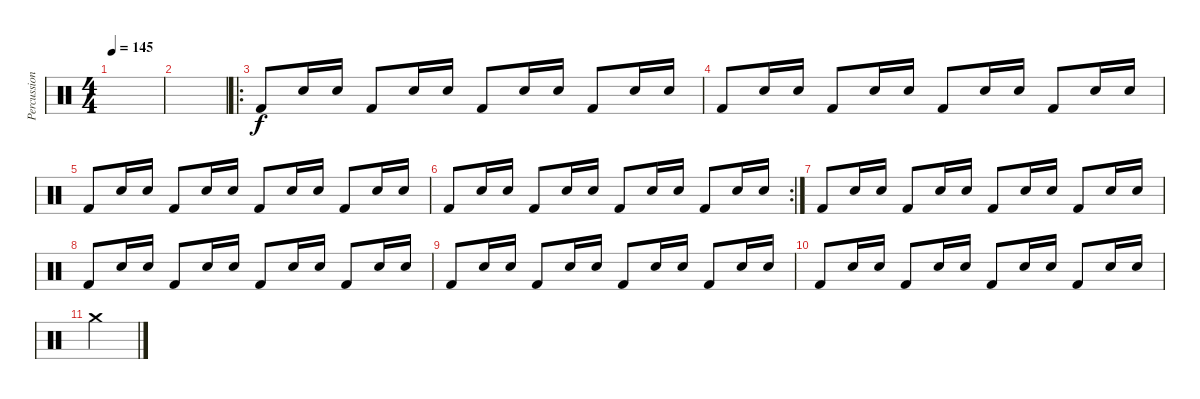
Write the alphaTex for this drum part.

\track ("Percussions" "Percussion") {instrument percussion}
\staff {score}
\articulation defaults
\ts (4 4)
\tempo 145
\clef neutral
\ks c
|
|
\ro "Kick (hit) 2".8 "Electric Snare (hit)".16 "Electric Snare (hit)".16 "Kick (hit) 2".8 "Electric Snare (hit)".16 "Electric Snare (hit)".16 "Kick (hit) 2".8 "Electric Snare (hit)".16 "Electric Snare (hit)".16 "Kick (hit) 2".8 "Electric Snare (hit)".16 "Electric Snare (hit)".16
|
"Kick (hit) 2".8 "Electric Snare (hit)".16 "Electric Snare (hit)".16 "Kick (hit) 2".8 "Electric Snare (hit)".16 "Electric Snare (hit)".16 "Kick (hit) 2".8 "Electric Snare (hit)".16 "Electric Snare (hit)".16 "Kick (hit) 2".8 "Electric Snare (hit)".16 "Electric Snare (hit)".16 |
"Kick (hit) 2".8 "Electric Snare (hit)".16 "Electric Snare (hit)".16 "Kick (hit) 2".8 "Electric Snare (hit)".16 "Electric Snare (hit)".16 "Kick (hit) 2".8 "Electric Snare (hit)".16 "Electric Snare (hit)".16 "Kick (hit) 2".8 "Electric Snare (hit)".16 "Electric Snare (hit)".16 |
\rc 2 "Kick (hit) 2".8 "Electric Snare (hit)".16 "Electric Snare (hit)".16 "Kick (hit) 2".8 "Electric Snare (hit)".16 "Electric Snare (hit)".16 "Kick (hit) 2".8 "Electric Snare (hit)".16 "Electric Snare (hit)".16 "Kick (hit) 2".8 "Electric Snare (hit)".16 "Electric Snare (hit)".16
|
"Kick (hit) 2".8 "Electric Snare (hit)".16 "Electric Snare (hit)".16 "Kick (hit) 2".8 "Electric Snare (hit)".16 "Electric Snare (hit)".16 "Kick (hit) 2".8 "Electric Snare (hit)".16 "Electric Snare (hit)".16 "Kick (hit) 2".8 "Electric Snare (hit)".16 "Electric Snare (hit)".16 |
"Kick (hit) 2".8 "Electric Snare (hit)".16 "Electric Snare (hit)".16 "Kick (hit) 2".8 "Electric Snare (hit)".16 "Electric Snare (hit)".16 "Kick (hit) 2".8 "Electric Snare (hit)".16 "Electric Snare (hit)".16 "Kick (hit) 2".8 "Electric Snare (hit)".16 "Electric Snare (hit)".16 |
"Kick (hit) 2".8 "Electric Snare (hit)".16 "Electric Snare (hit)".16 "Kick (hit) 2".8 "Electric Snare (hit)".16 "Electric Snare (hit)".16 "Kick (hit) 2".8 "Electric Snare (hit)".16 "Electric Snare (hit)".16 "Kick (hit) 2".8 "Electric Snare (hit)".16 "Electric Snare (hit)".16 |
"Kick (hit) 2".8 "Electric Snare (hit)".16 "Electric Snare (hit)".16 "Kick (hit) 2".8 "Electric Snare (hit)".16 "Electric Snare (hit)".16 "Kick (hit) 2".8 "Electric Snare (hit)".16 "Electric Snare (hit)".16 "Kick (hit) 2".8 "Electric Snare (hit)".16 "Electric Snare (hit)".16 |
"Crash medium (hit)".2
